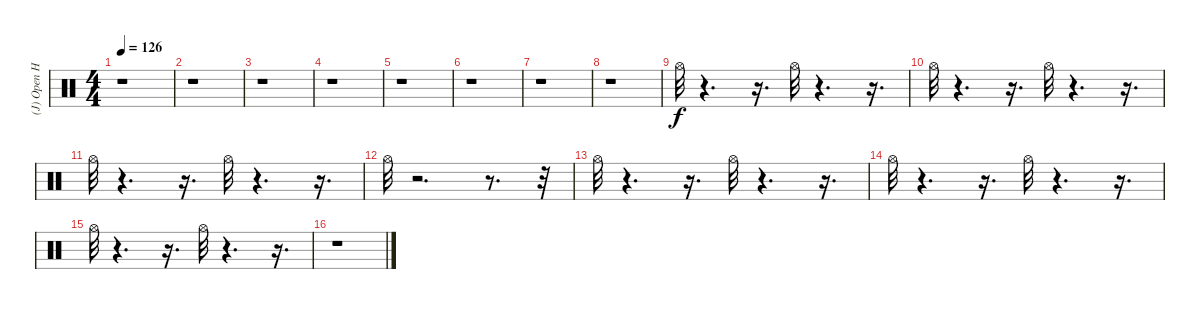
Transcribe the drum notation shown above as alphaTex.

\track ("(J) Open Hi Hat" "(J) Open H") {instrument percussion}
\staff {score}
\articulation defaults
\ts (4 4)
\tempo 126
\clef neutral
\ks c
r.1{dy f} |
r.1 |
r.1 |
r.1 |
r.1 |
r.1 |
r.1 |
r.1 |
"Hi-Hat (open)".32 r.4{d} r.16{d} "Hi-Hat (open)".32 r.4{d} r.16{d} |
"Hi-Hat (open)".32 r.4{d} r.16{d} "Hi-Hat (open)".32 r.4{d} r.16{d} |
"Hi-Hat (open)".32 r.4{d} r.16{d} "Hi-Hat (open)".32 r.4{d} r.16{d} |
"Hi-Hat (open)".32 r.2{d} r.8{d} r.32 |
"Hi-Hat (open)".32 r.4{d} r.16{d} "Hi-Hat (open)".32 r.4{d} r.16{d} |
"Hi-Hat (open)".32 r.4{d} r.16{d} "Hi-Hat (open)".32 r.4{d} r.16{d} |
"Hi-Hat (open)".32 r.4{d} r.16{d} "Hi-Hat (open)".32 r.4{d} r.16{d} |
r.1
